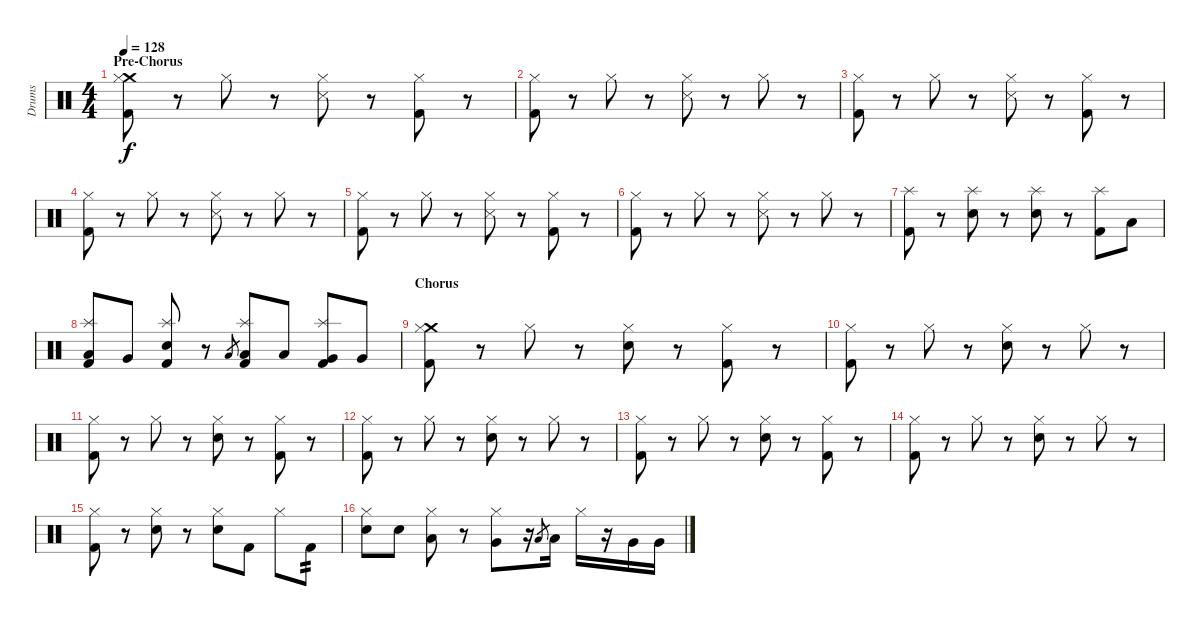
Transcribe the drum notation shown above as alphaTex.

\track ("Drums" "Drums") {instrument percussion}
\staff {score}
\articulation defaults
\ts (4 4)
\section ("" "Pre-Chorus")
\tempo 128
\clef neutral
\ks c
("Crash medium (hit)" "Hi-Hat (closed)" "Kick (hit) 2").8{dy f} r.8 "Hi-Hat (closed)".8 r.8 ("Snare (side stick) 3" "Hi-Hat (closed)").8 r.8 ("Hi-Hat (closed)" "Kick (hit) 2").8 r.8 |
("Hi-Hat (closed)" "Kick (hit) 2").8 r.8 "Hi-Hat (closed)".8 r.8 ("Snare (side stick) 3" "Hi-Hat (closed)").8 r.8 "Hi-Hat (closed)".8 r.8 |
("Hi-Hat (closed)" "Kick (hit) 2").8 r.8 "Hi-Hat (closed)".8 r.8 ("Snare (side stick) 3" "Hi-Hat (closed)").8 r.8 ("Hi-Hat (closed)" "Kick (hit) 2").8 r.8 |
("Hi-Hat (closed)" "Kick (hit) 2").8 r.8 "Hi-Hat (closed)".8 r.8 ("Snare (side stick) 3" "Hi-Hat (closed)").8 r.8 "Hi-Hat (closed)".8 r.8 |
("Hi-Hat (closed)" "Kick (hit) 2").8 r.8 "Hi-Hat (closed)".8 r.8 ("Snare (side stick) 3" "Hi-Hat (closed)").8 r.8 ("Hi-Hat (closed)" "Kick (hit) 2").8 r.8 |
("Hi-Hat (closed)" "Kick (hit) 2").8 r.8 "Hi-Hat (closed)".8 r.8 ("Snare (side stick) 3" "Hi-Hat (closed)").8 r.8 "Hi-Hat (closed)".8 r.8 |
("Splash (hit)" "Kick (hit) 2").8 r.8 ("Splash (hit)" "Snare (hit) 2").8 r.8 ("Splash (hit)" "Snare (hit) 2").8 r.8 ("Splash (hit)" "Kick (hit) 2").8 "Low Tom (hit)".8 |
("Splash (hit)" "Low Tom (hit)" "Kick (hit) 2").8 "Very Low Tom (hit)".8 ("Splash (hit)" "Snare (hit) 2" "Kick (hit) 2").8 r.8 "Low Tom (hit)".8{gr} ("Splash (hit)" "Low Tom (hit)" "Kick (hit) 2").8 "Low Tom (hit)".8 ("Splash (hit)" "Very Low Tom (hit)" "Kick (hit) 2").8 "Very Low Tom (hit)".8 |
\section ("" "Chorus")
("Crash medium (hit)" "Hi-Hat (closed)" "Kick (hit) 2").8 r.8 "Hi-Hat (closed)".8 r.8 ("Snare (hit) 2" "Hi-Hat (closed)").8 r.8 ("Hi-Hat (closed)" "Kick (hit) 2").8 r.8 |
("Hi-Hat (closed)" "Kick (hit) 2").8 r.8 "Hi-Hat (closed)".8 r.8 ("Snare (hit) 2" "Hi-Hat (closed)").8 r.8 "Hi-Hat (closed)".8 r.8 |
("Hi-Hat (closed)" "Kick (hit) 2").8 r.8 "Hi-Hat (closed)".8 r.8 ("Snare (hit) 2" "Hi-Hat (closed)").8 r.8 ("Hi-Hat (closed)" "Kick (hit) 2").8 r.8 |
("Hi-Hat (closed)" "Kick (hit) 2").8 r.8 "Hi-Hat (closed)".8 r.8 ("Snare (hit) 2" "Hi-Hat (closed)").8 r.8 "Hi-Hat (closed)".8 r.8 |
("Hi-Hat (closed)" "Kick (hit) 2").8 r.8 "Hi-Hat (closed)".8 r.8 ("Snare (hit) 2" "Hi-Hat (closed)").8 r.8 ("Hi-Hat (closed)" "Kick (hit) 2").8 r.8 |
("Hi-Hat (closed)" "Kick (hit) 2").8 r.8 "Hi-Hat (closed)".8 r.8 ("Snare (hit) 2" "Hi-Hat (closed)").8 r.8 "Hi-Hat (closed)".8 r.8 |
("Hi-Hat (closed)" "Kick (hit) 2").8 r.8 ("Hi-Hat (closed)" "Snare (hit) 2").8 r.8 ("Hi-Hat (closed)" "Snare (hit) 2").8 "Kick (hit) 2".8 "Hi-Hat (closed)".8 "Kick (hit) 2".8{tp 2} |
("Hi-Hat (closed)" "Snare (hit) 2").8 "Snare (hit) 2".8 ("Hi-Hat (closed)" "Low Tom (hit)").8 r.8 ("Hi-Hat (closed)" "Very Low Tom (hit)").8 r.16 "Low Tom (hit)".8{gr} "Low Tom (hit)".16 "Hi-Hat (closed)".16 r.16 "Very Low Tom (hit)".16 "Very Low Tom (hit)".16
